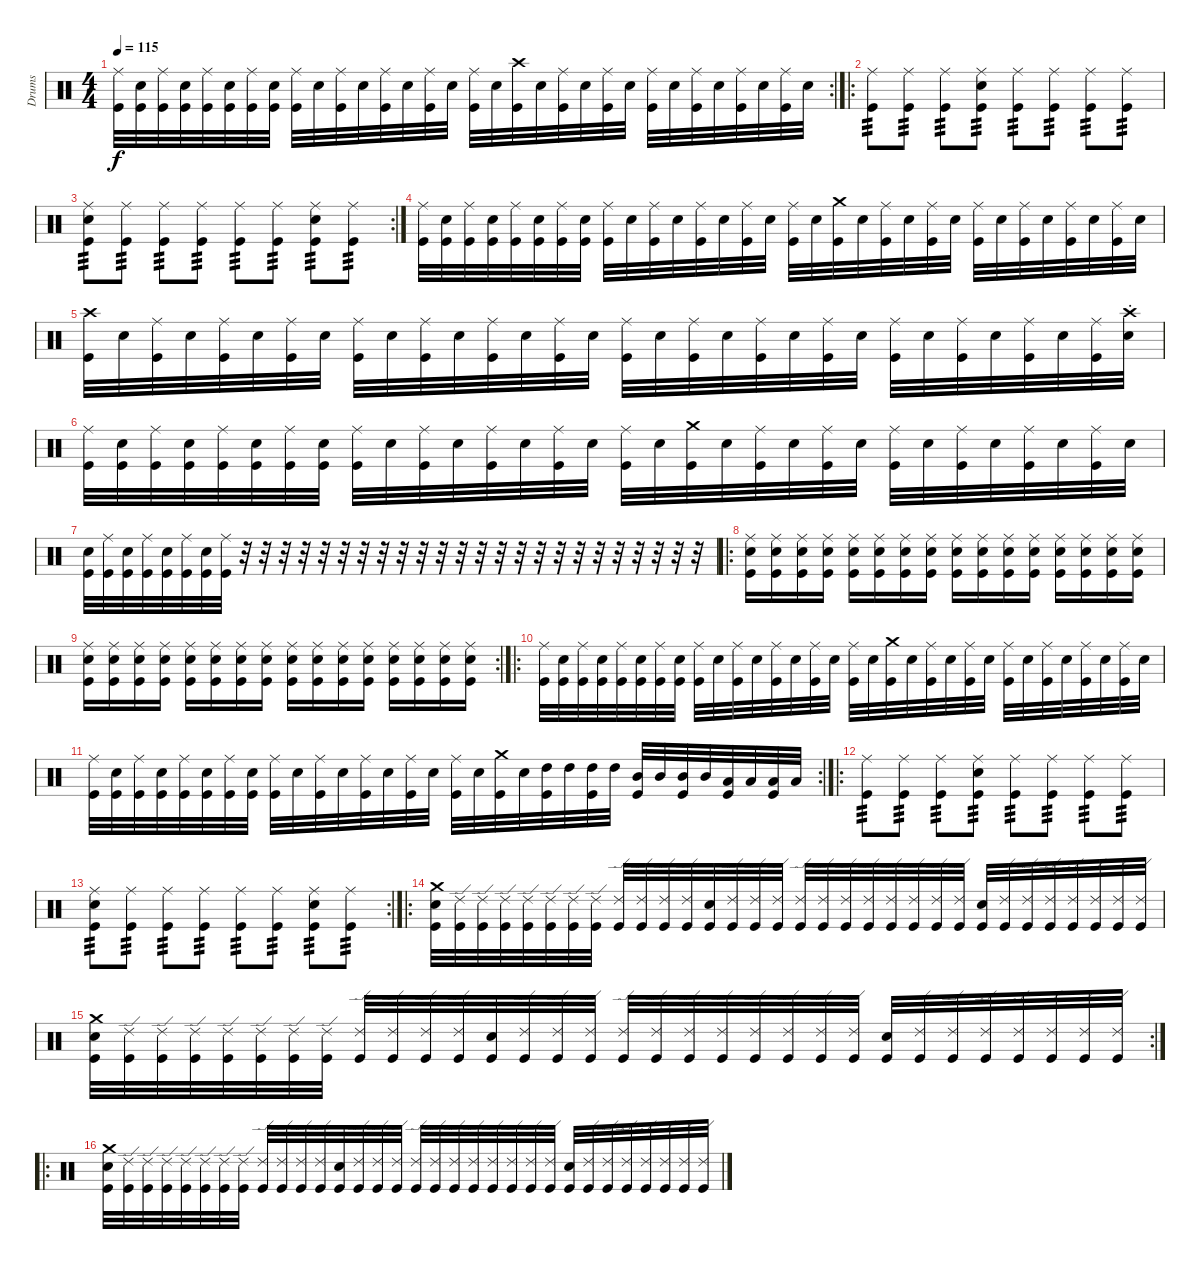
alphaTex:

\track ("Drums" "Drums") {instrument percussion}
\staff {score}
\articulation defaults
\rc 2
\ts (4 4)
\tempo 115
\clef neutral
\ks c
("Ride (middle)" "Kick (hit)").32{dy f} ("Snare (hit) 2" "Kick (hit)").32 ("Ride (middle)" "Kick (hit)").32 ("Snare (hit) 2" "Kick (hit)").32 ("Ride (middle)" "Kick (hit)").32 ("Snare (hit) 2" "Kick (hit)").32 ("Ride (middle)" "Kick (hit)").32 ("Snare (hit) 2" "Kick (hit)").32 ("Ride (middle)" "Kick (hit)").32 "Snare (hit) 2".32 ("Ride (middle)" "Kick (hit)").32 "Snare (hit) 2".32 ("Ride (middle)" "Kick (hit)").32 "Snare (hit) 2".32 ("Ride (middle)" "Kick (hit)").32 "Snare (hit) 2".32 ("Ride (middle)" "Kick (hit)").32 "Snare (hit) 2".32 ("Crash high (hit)" "Kick (hit)").32 "Snare (hit) 2".32 ("Ride (middle)" "Kick (hit)").32 "Snare (hit) 2".32 ("Ride (middle)" "Kick (hit)").32 "Snare (hit) 2".32 ("Ride (middle)" "Kick (hit)").32 "Snare (hit) 2".32 ("Ride (middle)" "Kick (hit)").32 "Snare (hit) 2".32 ("Ride (middle)" "Kick (hit)").32 "Snare (hit) 2".32 ("Ride (middle)" "Kick (hit)").32 "Snare (hit) 2".32 |
\ro
("Ride (middle)" "Kick (hit)").8{tp 3} ("Ride (middle)" "Kick (hit)").8{tp 3} ("Ride (middle)" "Kick (hit)").8{tp 3} ("Ride (middle)" "Snare (hit) 2" "Kick (hit)").8{tp 3} ("Ride (middle)" "Kick (hit)").8{tp 3} ("Ride (middle)" "Kick (hit)").8{tp 3} ("Ride (middle)" "Kick (hit)").8{tp 3} ("Ride (middle)" "Kick (hit)").8{tp 3} |
\rc 2
("Ride (middle)" "Snare (hit) 2" "Kick (hit)").8{tp 3} ("Ride (middle)" "Kick (hit)").8{tp 3} ("Ride (middle)" "Kick (hit)").8{tp 3} ("Ride (middle)" "Kick (hit)").8{tp 3} ("Ride (middle)" "Kick (hit)").8{tp 3} ("Ride (middle)" "Kick (hit)").8{tp 3} ("Ride (middle)" "Snare (hit) 2" "Kick (hit)").8{tp 3} ("Ride (middle)" "Kick (hit)").8{tp 3} |
("Ride (middle)" "Kick (hit)").32 ("Snare (hit) 2" "Kick (hit)").32 ("Ride (middle)" "Kick (hit)").32 ("Snare (hit) 2" "Kick (hit)").32 ("Ride (middle)" "Kick (hit)").32 ("Snare (hit) 2" "Kick (hit)").32 ("Ride (middle)" "Kick (hit)").32 ("Snare (hit) 2" "Kick (hit)").32 ("Ride (middle)" "Kick (hit)").32 "Snare (hit) 2".32 ("Ride (middle)" "Kick (hit)").32 "Snare (hit) 2".32 ("Ride (middle)" "Kick (hit)").32 "Snare (hit) 2".32 ("Ride (middle)" "Kick (hit)").32 "Snare (hit) 2".32 ("Ride (middle)" "Kick (hit)").32 "Snare (hit) 2".32 ("Crash medium (hit)" "Kick (hit)").32 "Snare (hit) 2".32 ("Ride (middle)" "Kick (hit)").32 "Snare (hit) 2".32 ("Ride (middle)" "Kick (hit)").32 "Snare (hit) 2".32 ("Ride (middle)" "Kick (hit)").32 "Snare (hit) 2".32 ("Ride (middle)" "Kick (hit)").32 "Snare (hit) 2".32 ("Ride (middle)" "Kick (hit)").32 "Snare (hit) 2".32 ("Ride (middle)" "Kick (hit)").32 "Snare (hit) 2".32 |
("Crash high (hit)" "Kick (hit)").32 "Snare (hit) 2".32 ("Ride (middle)" "Kick (hit)").32 "Snare (hit) 2".32 ("Ride (middle)" "Kick (hit)").32 "Snare (hit) 2".32 ("Ride (middle)" "Kick (hit)").32 "Snare (hit) 2".32 ("Ride (middle)" "Kick (hit)").32 "Snare (hit) 2".32 ("Ride (middle)" "Kick (hit)").32 "Snare (hit) 2".32 ("Ride (middle)" "Kick (hit)").32 "Snare (hit) 2".32 ("Ride (middle)" "Kick (hit)").32 "Snare (hit) 2".32 ("Ride (middle)" "Kick (hit)").32 "Snare (hit) 2".32 ("Ride (middle)" "Kick (hit)").32 "Snare (hit) 2".32 ("Ride (middle)" "Kick (hit)").32 "Snare (hit) 2".32 ("Ride (middle)" "Kick (hit)").32 "Snare (hit) 2".32 ("Ride (middle)" "Kick (hit)").32 "Snare (hit) 2".32 ("Ride (middle)" "Kick (hit)").32 "Snare (hit) 2".32 ("Ride (middle)" "Kick (hit)").32 "Snare (hit) 2".32 ("Ride (middle)" "Kick (hit)").32 ("Crash high (hit)"{st} "Snare (hit) 2"{st}).32 |
("Ride (middle)" "Kick (hit)").32 ("Snare (hit) 2" "Kick (hit)").32 ("Ride (middle)" "Kick (hit)").32 ("Snare (hit) 2" "Kick (hit)").32 ("Ride (middle)" "Kick (hit)").32 ("Snare (hit) 2" "Kick (hit)").32 ("Ride (middle)" "Kick (hit)").32 ("Snare (hit) 2" "Kick (hit)").32 ("Ride (middle)" "Kick (hit)").32 "Snare (hit) 2".32 ("Ride (middle)" "Kick (hit)").32 "Snare (hit) 2".32 ("Ride (middle)" "Kick (hit)").32 "Snare (hit) 2".32 ("Ride (middle)" "Kick (hit)").32 "Snare (hit) 2".32 ("Ride (middle)" "Kick (hit)").32 "Snare (hit) 2".32 ("Crash medium (hit)" "Kick (hit)").32 "Snare (hit) 2".32 ("Ride (middle)" "Kick (hit)").32 "Snare (hit) 2".32 ("Ride (middle)" "Kick (hit)").32 "Snare (hit) 2".32 ("Ride (middle)" "Kick (hit)").32 "Snare (hit) 2".32 ("Ride (middle)" "Kick (hit)").32 "Snare (hit) 2".32 ("Ride (middle)" "Kick (hit)").32 "Snare (hit) 2".32 ("Ride (middle)" "Kick (hit)").32 "Snare (hit) 2".32 |
("Snare (hit) 2" "Kick (hit)").32 ("Ride (middle)" "Kick (hit)").32 ("Snare (hit) 2" "Kick (hit)").32 ("Ride (middle)" "Kick (hit)").32 ("Snare (hit) 2" "Kick (hit)").32 ("Ride (middle)" "Kick (hit)").32 ("Snare (hit) 2" "Kick (hit)").32 ("Ride (middle)" "Kick (hit)").32 r.32 r.32 r.32 r.32 r.32 r.32 r.32 r.32 r.32 r.32 r.32 r.32 r.32 r.32 r.32 r.32 r.32 r.32 r.32 r.32 r.32 r.32 r.32 r.32 |
\ro
("Ride (middle)" "Snare (hit) 2" "Kick (hit)").16 ("Ride (middle)" "Snare (hit) 2" "Kick (hit)").16 ("Ride (middle)" "Snare (hit) 2" "Kick (hit)").16 ("Ride (middle)" "Snare (hit) 2" "Kick (hit)").16 ("Ride (middle)" "Snare (hit) 2" "Kick (hit)").16 ("Ride (middle)" "Snare (hit) 2" "Kick (hit)").16 ("Ride (middle)" "Snare (hit) 2" "Kick (hit)").16 ("Ride (middle)" "Snare (hit) 2" "Kick (hit)").16 ("Ride (middle)" "Snare (hit) 2" "Kick (hit)").16 ("Ride (middle)" "Snare (hit) 2" "Kick (hit)").16 ("Ride (middle)" "Snare (hit) 2" "Kick (hit)").16 ("Ride (middle)" "Snare (hit) 2" "Kick (hit)").16 ("Ride (middle)" "Snare (hit) 2" "Kick (hit)").16 ("Ride (middle)" "Snare (hit) 2" "Kick (hit)").16 ("Ride (middle)" "Snare (hit) 2" "Kick (hit)").16 ("Ride (middle)" "Snare (hit) 2" "Kick (hit)").16 |
\rc 2
("Ride (middle)" "Snare (hit) 2" "Kick (hit)").16 ("Ride (middle)" "Snare (hit) 2" "Kick (hit)").16 ("Ride (middle)" "Snare (hit) 2" "Kick (hit)").16 ("Ride (middle)" "Snare (hit) 2" "Kick (hit)").16 ("Ride (middle)" "Snare (hit) 2" "Kick (hit)").16 ("Ride (middle)" "Snare (hit) 2" "Kick (hit)").16 ("Ride (middle)" "Snare (hit) 2" "Kick (hit)").16 ("Ride (middle)" "Snare (hit) 2" "Kick (hit)").16 ("Ride (middle)" "Snare (hit) 2" "Kick (hit)").16 ("Ride (middle)" "Snare (hit) 2" "Kick (hit)").16 ("Ride (middle)" "Snare (hit) 2" "Kick (hit)").16 ("Ride (middle)" "Snare (hit) 2" "Kick (hit)").16 ("Ride (middle)" "Snare (hit) 2" "Kick (hit)").16 ("Ride (middle)" "Snare (hit) 2" "Kick (hit)").16 ("Ride (middle)" "Snare (hit) 2" "Kick (hit)").16 ("Ride (middle)" "Snare (hit) 2" "Kick (hit)").16 |
\ro
("Ride (middle)" "Kick (hit)").32 ("Snare (hit) 2" "Kick (hit)").32 ("Ride (middle)" "Kick (hit)").32 ("Snare (hit) 2" "Kick (hit)").32 ("Ride (middle)" "Kick (hit)").32 ("Snare (hit) 2" "Kick (hit)").32 ("Ride (middle)" "Kick (hit)").32 ("Snare (hit) 2" "Kick (hit)").32 ("Ride (middle)" "Kick (hit)").32 "Snare (hit) 2".32 ("Ride (middle)" "Kick (hit)").32 "Snare (hit) 2".32 ("Ride (middle)" "Kick (hit)").32 "Snare (hit) 2".32 ("Ride (middle)" "Kick (hit)").32 "Snare (hit) 2".32 ("Ride (middle)" "Kick (hit)").32 "Snare (hit) 2".32 ("Crash medium (hit)" "Kick (hit)").32 "Snare (hit) 2".32 ("Ride (middle)" "Kick (hit)").32 "Snare (hit) 2".32 ("Ride (middle)" "Kick (hit)").32 "Snare (hit) 2".32 ("Ride (middle)" "Kick (hit)").32 "Snare (hit) 2".32 ("Ride (middle)" "Kick (hit)").32 "Snare (hit) 2".32 ("Ride (middle)" "Kick (hit)").32 "Snare (hit) 2".32 ("Ride (middle)" "Kick (hit)").32 "Snare (hit) 2".32 |
\rc 2
("Ride (middle)" "Kick (hit)").32 ("Snare (hit) 2" "Kick (hit)").32 ("Ride (middle)" "Kick (hit)").32 ("Snare (hit) 2" "Kick (hit)").32 ("Ride (middle)" "Kick (hit)").32 ("Snare (hit) 2" "Kick (hit)").32 ("Ride (middle)" "Kick (hit)").32 ("Snare (hit) 2" "Kick (hit)").32 ("Ride (middle)" "Kick (hit)").32 "Snare (hit) 2".32 ("Ride (middle)" "Kick (hit)").32 "Snare (hit) 2".32 ("Ride (middle)" "Kick (hit)").32 "Snare (hit) 2".32 ("Ride (middle)" "Kick (hit)").32 "Snare (hit) 2".32 ("Ride (middle)" "Kick (hit)").32 "Snare (hit) 2".32 ("Crash medium (hit)" "Kick (hit)").32 "Snare (hit) 2".32 ("High Tom (hit)" "Kick (hit)").32 "High Tom (hit)".32 ("High Tom (hit)" "Kick (hit)").32 "High Tom (hit)".32 ("Mid Tom (hit)" "Kick (hit)").32 "Mid Tom (hit)".32 ("Mid Tom (hit)" "Kick (hit)").32 "Mid Tom (hit)".32 ("Low Tom (hit)" "Kick (hit)").32 "Low Tom (hit)".32 ("Low Tom (hit)" "Kick (hit)").32 "Low Floor Tom (hit)".32 |
\ro
("Ride (middle)" "Kick (hit)").8{tp 3} ("Ride (middle)" "Kick (hit)").8{tp 3} ("Ride (middle)" "Kick (hit)").8{tp 3} ("Ride (middle)" "Snare (hit) 2" "Kick (hit)").8{tp 3} ("Ride (middle)" "Kick (hit)").8{tp 3} ("Ride (middle)" "Kick (hit)").8{tp 3} ("Ride (middle)" "Kick (hit)").8{tp 3} ("Ride (middle)" "Kick (hit)").8{tp 3} |
\rc 2
("Ride (middle)" "Snare (hit) 2" "Kick (hit)").8{tp 3} ("Ride (middle)" "Kick (hit)").8{tp 3} ("Ride (middle)" "Kick (hit)").8{tp 3} ("Ride (middle)" "Kick (hit)").8{tp 3} ("Ride (middle)" "Kick (hit)").8{tp 3} ("Ride (middle)" "Kick (hit)").8{tp 3} ("Ride (middle)" "Snare (hit) 2" "Kick (hit)").8{tp 3} ("Ride (middle)" "Kick (hit)").8{tp 3} |
\ro
("Crash medium (hit)" "Snare (hit) 2" "Kick (hit)").32 ("Ride (edge) 2" "Kick (hit)").32 ("Ride (edge) 2" "Kick (hit)").32 ("Ride (edge) 2" "Kick (hit)").32 ("Ride (edge) 2" "Kick (hit)").32 ("Ride (edge) 2" "Kick (hit)").32 ("Ride (edge) 2" "Kick (hit)").32 ("Ride (edge) 2" "Kick (hit)").32 ("Ride (edge) 2" "Kick (hit)").32 ("Ride (edge) 2" "Kick (hit)").32 ("Ride (edge) 2" "Kick (hit)").32 ("Ride (edge) 2" "Kick (hit)").32 ("Snare (hit) 2" "Kick (hit)").32 ("Ride (edge) 2" "Kick (hit)").32 ("Ride (edge) 2" "Kick (hit)").32 ("Ride (edge) 2" "Kick (hit)").32 ("Ride (edge) 2" "Kick (hit)").32 ("Ride (edge) 2" "Kick (hit)").32 ("Ride (edge) 2" "Kick (hit)").32 ("Ride (edge) 2" "Kick (hit)").32 ("Ride (edge) 2" "Kick (hit)").32 ("Ride (edge) 2" "Kick (hit)").32 ("Ride (edge) 2" "Kick (hit)").32 ("Ride (edge) 2" "Kick (hit)").32 ("Snare (hit) 2" "Kick (hit)").32 ("Ride (edge) 2" "Kick (hit)").32 ("Ride (edge) 2" "Kick (hit)").32 ("Ride (edge) 2" "Kick (hit)").32 ("Ride (edge) 2" "Kick (hit)").32 ("Ride (edge) 2" "Kick (hit)").32 ("Ride (edge) 2" "Kick (hit)").32 ("Ride (edge) 2" "Kick (hit)").32 |
\rc 2
("Crash medium (hit)" "Snare (hit) 2" "Kick (hit)").32 ("Ride (edge) 2" "Kick (hit)").32 ("Ride (edge) 2" "Kick (hit)").32 ("Ride (edge) 2" "Kick (hit)").32 ("Ride (edge) 2" "Kick (hit)").32 ("Ride (edge) 2" "Kick (hit)").32 ("Ride (edge) 2" "Kick (hit)").32 ("Ride (edge) 2" "Kick (hit)").32 ("Ride (edge) 2" "Kick (hit)").32 ("Ride (edge) 2" "Kick (hit)").32 ("Ride (edge) 2" "Kick (hit)").32 ("Ride (edge) 2" "Kick (hit)").32 ("Snare (hit) 2" "Kick (hit)").32 ("Ride (edge) 2" "Kick (hit)").32 ("Ride (edge) 2" "Kick (hit)").32 ("Ride (edge) 2" "Kick (hit)").32 ("Ride (edge) 2" "Kick (hit)").32 ("Ride (edge) 2" "Kick (hit)").32 ("Ride (edge) 2" "Kick (hit)").32 ("Ride (edge) 2" "Kick (hit)").32 ("Ride (edge) 2" "Kick (hit)").32 ("Ride (edge) 2" "Kick (hit)").32 ("Ride (edge) 2" "Kick (hit)").32 ("Ride (edge) 2" "Kick (hit)").32 ("Snare (hit) 2" "Kick (hit)").32 ("Ride (edge) 2" "Kick (hit)").32 ("Ride (edge) 2" "Kick (hit)").32 ("Ride (edge) 2" "Kick (hit)").32 ("Ride (edge) 2" "Kick (hit)").32 ("Ride (edge) 2" "Kick (hit)").32 ("Ride (edge) 2" "Kick (hit)").32 ("Ride (edge) 2" "Kick (hit)").32 |
\ro
("Crash medium (hit)" "Snare (hit) 2" "Kick (hit)").32 ("Ride (edge) 2" "Kick (hit)").32 ("Ride (edge) 2" "Kick (hit)").32 ("Ride (edge) 2" "Kick (hit)").32 ("Ride (edge) 2" "Kick (hit)").32 ("Ride (edge) 2" "Kick (hit)").32 ("Ride (edge) 2" "Kick (hit)").32 ("Ride (edge) 2" "Kick (hit)").32 ("Ride (edge) 2" "Kick (hit)").32 ("Ride (edge) 2" "Kick (hit)").32 ("Ride (edge) 2" "Kick (hit)").32 ("Ride (edge) 2" "Kick (hit)").32 ("Snare (hit) 2" "Kick (hit)").32 ("Ride (edge) 2" "Kick (hit)").32 ("Ride (edge) 2" "Kick (hit)").32 ("Ride (edge) 2" "Kick (hit)").32 ("Ride (edge) 2" "Kick (hit)").32 ("Ride (edge) 2" "Kick (hit)").32 ("Ride (edge) 2" "Kick (hit)").32 ("Ride (edge) 2" "Kick (hit)").32 ("Ride (edge) 2" "Kick (hit)").32 ("Ride (edge) 2" "Kick (hit)").32 ("Ride (edge) 2" "Kick (hit)").32 ("Ride (edge) 2" "Kick (hit)").32 ("Snare (hit) 2" "Kick (hit)").32 ("Ride (edge) 2" "Kick (hit)").32 ("Ride (edge) 2" "Kick (hit)").32 ("Ride (edge) 2" "Kick (hit)").32 ("Ride (edge) 2" "Kick (hit)").32 ("Ride (edge) 2" "Kick (hit)").32 ("Ride (edge) 2" "Kick (hit)").32 ("Ride (edge) 2" "Kick (hit)").32
